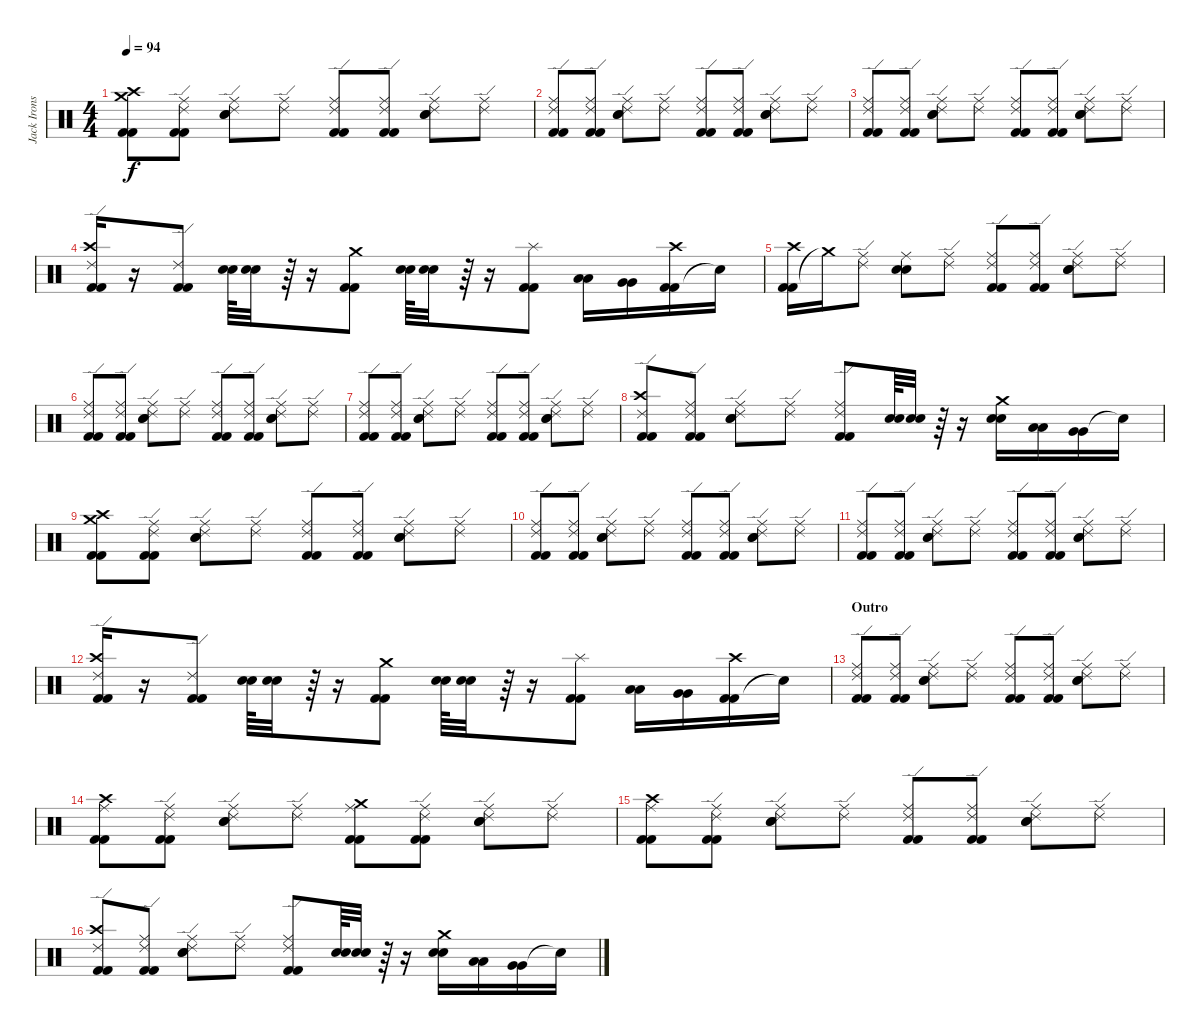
\track ("Jack Irons" "Jack Irons") {instrument percussion}
\staff {score}
\articulation defaults
\ts (4 4)
\tempo 94
\clef neutral
\ks c
("Kick (hit) 2" "Kick (hit) 2" "Crash high (hit)" "Crash medium (hit)").8{dy f} ("Kick (hit) 2" "Kick (hit) 2" "Ride (middle)" "Ride (edge) 2").8 ("Electric Snare (hit)" "Electric Snare (hit)" "Ride (middle)" "Ride (edge) 2").8 ("Ride (middle)" "Ride (edge) 2").8 ("Kick (hit) 2" "Kick (hit) 2" "Ride (middle)" "Ride (edge) 2").8 ("Kick (hit) 2" "Kick (hit) 2" "Ride (middle)" "Ride (edge) 2").8 ("Electric Snare (hit)" "Electric Snare (hit)" "Ride (middle)" "Ride (edge) 2").8 ("Ride (middle)" "Ride (edge) 2").8 |
("Kick (hit) 2" "Kick (hit) 2" "Ride (middle)" "Ride (edge) 2").8 ("Kick (hit) 2" "Kick (hit) 2" "Ride (middle)" "Ride (edge) 2").8 ("Electric Snare (hit)" "Electric Snare (hit)" "Ride (middle)" "Ride (edge) 2").8 ("Ride (middle)" "Ride (edge) 2").8 ("Kick (hit) 2" "Kick (hit) 2" "Ride (middle)" "Ride (edge) 2").8 ("Kick (hit) 2" "Kick (hit) 2" "Ride (middle)" "Ride (edge) 2").8 ("Electric Snare (hit)" "Electric Snare (hit)" "Ride (middle)" "Ride (edge) 2").8 ("Ride (middle)" "Ride (edge) 2").8 |
("Kick (hit) 2" "Kick (hit) 2" "Ride (middle)" "Ride (edge) 2").8 ("Kick (hit) 2" "Kick (hit) 2" "Ride (middle)" "Ride (edge) 2").8 ("Electric Snare (hit)" "Electric Snare (hit)" "Ride (middle)" "Ride (edge) 2").8 ("Ride (middle)" "Ride (edge) 2").8 ("Kick (hit) 2" "Kick (hit) 2" "Ride (middle)" "Ride (edge) 2").8 ("Kick (hit) 2" "Kick (hit) 2" "Ride (middle)" "Ride (edge) 2").8 ("Electric Snare (hit)" "Electric Snare (hit)" "Ride (middle)" "Ride (edge) 2").8 ("Ride (middle)" "Ride (edge) 2").8 |
("Kick (hit) 2" "Kick (hit) 2" "Crash high (hit)" "Ride (edge) 2").16 r.16 ("Kick (hit) 2" "Kick (hit) 2" "Ride (edge) 2").8 ("Electric Snare (hit)" "Electric Snare (hit)").64 ("Electric Snare (hit)" "Electric Snare (hit)").32 r.64 r.16 ("Crash medium (hit)" "Kick (hit) 2" "Kick (hit) 2").8 ("Electric Snare (hit)" "Electric Snare (hit)").64 ("Electric Snare (hit)" "Electric Snare (hit)").32 r.64 r.16 ("Splash (hit)" "Kick (hit) 2" "Kick (hit) 2").8 ("Low Tom (hit)" "Low Tom (hit)").16 ("Very Low Tom (hit)" "Very Low Tom (hit)").16 ("Kick (hit) 2" "Kick (hit) 2" "Crash high (hit)").16 "Snare (hit)"{t}.16 |
("Kick (hit) 2" "Kick (hit) 2" "Crash high (hit)").16 "Crash medium (hit)"{t}.16 ("Ride (middle)" "Ride (edge) 2").8 ("Electric Snare (hit)" "Electric Snare (hit)" "Ride (middle)").8 ("Ride (middle)" "Ride (edge) 2").8 ("Kick (hit) 2" "Kick (hit) 2" "Ride (middle)" "Ride (edge) 2").8 ("Kick (hit) 2" "Kick (hit) 2" "Ride (middle)" "Ride (edge) 2").8 ("Electric Snare (hit)" "Electric Snare (hit)" "Ride (middle)" "Ride (edge) 2").8 ("Ride (middle)" "Ride (edge) 2").8 |
("Kick (hit) 2" "Kick (hit) 2" "Ride (middle)" "Ride (edge) 2").8 ("Kick (hit) 2" "Kick (hit) 2" "Ride (middle)" "Ride (edge) 2").8 ("Electric Snare (hit)" "Electric Snare (hit)" "Ride (middle)" "Ride (edge) 2").8 ("Ride (middle)" "Ride (edge) 2").8 ("Kick (hit) 2" "Kick (hit) 2" "Ride (middle)" "Ride (edge) 2").8 ("Kick (hit) 2" "Kick (hit) 2" "Ride (middle)" "Ride (edge) 2").8 ("Electric Snare (hit)" "Electric Snare (hit)" "Ride (middle)" "Ride (edge) 2").8 ("Ride (middle)" "Ride (edge) 2").8 |
("Kick (hit) 2" "Kick (hit) 2" "Ride (middle)" "Ride (edge) 2").8 ("Kick (hit) 2" "Kick (hit) 2" "Ride (middle)" "Ride (edge) 2").8 ("Electric Snare (hit)" "Electric Snare (hit)" "Ride (middle)" "Ride (edge) 2").8 ("Ride (middle)" "Ride (edge) 2").8 ("Kick (hit) 2" "Kick (hit) 2" "Ride (middle)" "Ride (edge) 2").8 ("Kick (hit) 2" "Kick (hit) 2" "Ride (middle)" "Ride (edge) 2").8 ("Electric Snare (hit)" "Electric Snare (hit)" "Ride (middle)" "Ride (edge) 2").8 ("Ride (middle)" "Ride (edge) 2").8 |
("Kick (hit) 2" "Kick (hit) 2" "Crash high (hit)" "Ride (edge) 2").8 ("Kick (hit) 2" "Kick (hit) 2" "Ride (middle)" "Ride (edge) 2").8 ("Electric Snare (hit)" "Electric Snare (hit)" "Ride (middle)" "Ride (edge) 2").8 ("Ride (middle)" "Ride (edge) 2").8 ("Kick (hit) 2" "Kick (hit) 2" "Ride (middle)" "Ride (edge) 2").8 ("Electric Snare (hit)" "Electric Snare (hit)").64 ("Electric Snare (hit)" "Electric Snare (hit)").32 r.64 r.16 ("Electric Snare (hit)" "Electric Snare (hit)" "Crash medium (hit)").16 ("Low Tom (hit)" "Low Tom (hit)").16 ("Very Low Tom (hit)" "Very Low Tom (hit)").16 "Snare (hit)"{t}.16 |
("Kick (hit) 2" "Kick (hit) 2" "Crash high (hit)" "Crash medium (hit)").8 ("Kick (hit) 2" "Kick (hit) 2" "Ride (middle)" "Ride (edge) 2").8 ("Electric Snare (hit)" "Electric Snare (hit)" "Ride (middle)" "Ride (edge) 2").8 ("Ride (middle)" "Ride (edge) 2").8 ("Kick (hit) 2" "Kick (hit) 2" "Ride (middle)" "Ride (edge) 2").8 ("Kick (hit) 2" "Kick (hit) 2" "Ride (middle)" "Ride (edge) 2").8 ("Electric Snare (hit)" "Electric Snare (hit)" "Ride (middle)" "Ride (edge) 2").8 ("Ride (middle)" "Ride (edge) 2").8 |
("Kick (hit) 2" "Kick (hit) 2" "Ride (middle)" "Ride (edge) 2").8 ("Kick (hit) 2" "Kick (hit) 2" "Ride (middle)" "Ride (edge) 2").8 ("Electric Snare (hit)" "Electric Snare (hit)" "Ride (middle)" "Ride (edge) 2").8 ("Ride (middle)" "Ride (edge) 2").8 ("Kick (hit) 2" "Kick (hit) 2" "Ride (middle)" "Ride (edge) 2").8 ("Kick (hit) 2" "Kick (hit) 2" "Ride (middle)" "Ride (edge) 2").8 ("Electric Snare (hit)" "Electric Snare (hit)" "Ride (middle)" "Ride (edge) 2").8 ("Ride (middle)" "Ride (edge) 2").8 |
("Kick (hit) 2" "Kick (hit) 2" "Ride (middle)" "Ride (edge) 2").8 ("Kick (hit) 2" "Kick (hit) 2" "Ride (middle)" "Ride (edge) 2").8 ("Electric Snare (hit)" "Electric Snare (hit)" "Ride (middle)" "Ride (edge) 2").8 ("Ride (middle)" "Ride (edge) 2").8 ("Kick (hit) 2" "Kick (hit) 2" "Ride (middle)" "Ride (edge) 2").8 ("Kick (hit) 2" "Kick (hit) 2" "Ride (middle)" "Ride (edge) 2").8 ("Electric Snare (hit)" "Electric Snare (hit)" "Ride (middle)" "Ride (edge) 2").8 ("Ride (middle)" "Ride (edge) 2").8 |
("Kick (hit) 2" "Kick (hit) 2" "Crash high (hit)" "Ride (edge) 2").16 r.16 ("Kick (hit) 2" "Kick (hit) 2" "Ride (edge) 2").8 ("Electric Snare (hit)" "Electric Snare (hit)").64 ("Electric Snare (hit)" "Electric Snare (hit)").32 r.64 r.16 ("Crash medium (hit)" "Kick (hit) 2" "Kick (hit) 2").8 ("Electric Snare (hit)" "Electric Snare (hit)").64 ("Electric Snare (hit)" "Electric Snare (hit)").32 r.64 r.16 ("Splash (hit)" "Kick (hit) 2" "Kick (hit) 2").8 ("Low Tom (hit)" "Low Tom (hit)").16 ("Very Low Tom (hit)" "Very Low Tom (hit)").16 ("Kick (hit) 2" "Kick (hit) 2" "Crash high (hit)").16 "Snare (hit)"{t}.16 |
\section ("" "Outro")
("Kick (hit) 2" "Kick (hit) 2" "Ride (middle)" "Ride (edge) 2").8 ("Kick (hit) 2" "Kick (hit) 2" "Ride (middle)" "Ride (edge) 2").8 ("Electric Snare (hit)" "Electric Snare (hit)" "Ride (middle)" "Ride (edge) 2").8 ("Ride (middle)" "Ride (edge) 2").8 ("Kick (hit) 2" "Kick (hit) 2" "Ride (middle)" "Ride (edge) 2").8 ("Kick (hit) 2" "Kick (hit) 2" "Ride (middle)" "Ride (edge) 2").8 ("Electric Snare (hit)" "Electric Snare (hit)" "Ride (middle)" "Ride (edge) 2").8 ("Ride (middle)" "Ride (edge) 2").8 |
("Kick (hit) 2" "Kick (hit) 2" "Ride (middle)" "Crash high (hit)").8 ("Kick (hit) 2" "Kick (hit) 2" "Ride (middle)" "Ride (edge) 2").8 ("Electric Snare (hit)" "Electric Snare (hit)" "Ride (middle)" "Ride (edge) 2").8 ("Ride (middle)" "Ride (edge) 2").8 ("Kick (hit) 2" "Kick (hit) 2" "Ride (middle)" "Crash medium (hit)").8 ("Kick (hit) 2" "Kick (hit) 2" "Ride (middle)" "Ride (edge) 2").8 ("Electric Snare (hit)" "Electric Snare (hit)" "Ride (middle)" "Ride (edge) 2").8 ("Ride (middle)" "Ride (edge) 2").8 |
("Kick (hit) 2" "Kick (hit) 2" "Ride (middle)" "Crash high (hit)").8 ("Kick (hit) 2" "Kick (hit) 2" "Ride (middle)" "Ride (edge) 2").8 ("Electric Snare (hit)" "Electric Snare (hit)" "Ride (middle)" "Ride (edge) 2").8 ("Ride (middle)" "Ride (edge) 2").8 ("Kick (hit) 2" "Kick (hit) 2" "Ride (middle)" "Ride (edge) 2").8 ("Kick (hit) 2" "Kick (hit) 2" "Ride (middle)" "Ride (edge) 2").8 ("Electric Snare (hit)" "Electric Snare (hit)" "Ride (middle)" "Ride (edge) 2").8 ("Ride (middle)" "Ride (edge) 2").8 |
("Kick (hit) 2" "Kick (hit) 2" "Crash high (hit)" "Ride (edge) 2").8 ("Kick (hit) 2" "Kick (hit) 2" "Ride (middle)" "Ride (edge) 2").8 ("Electric Snare (hit)" "Electric Snare (hit)" "Ride (middle)" "Ride (edge) 2").8 ("Ride (middle)" "Ride (edge) 2").8 ("Kick (hit) 2" "Kick (hit) 2" "Ride (middle)" "Ride (edge) 2").8 ("Electric Snare (hit)" "Electric Snare (hit)").64 ("Electric Snare (hit)" "Electric Snare (hit)").32 r.64 r.16 ("Electric Snare (hit)" "Electric Snare (hit)" "Crash medium (hit)").16 ("Low Tom (hit)" "Low Tom (hit)").16 ("Very Low Tom (hit)" "Very Low Tom (hit)").16 "Snare (hit)"{t}.16
